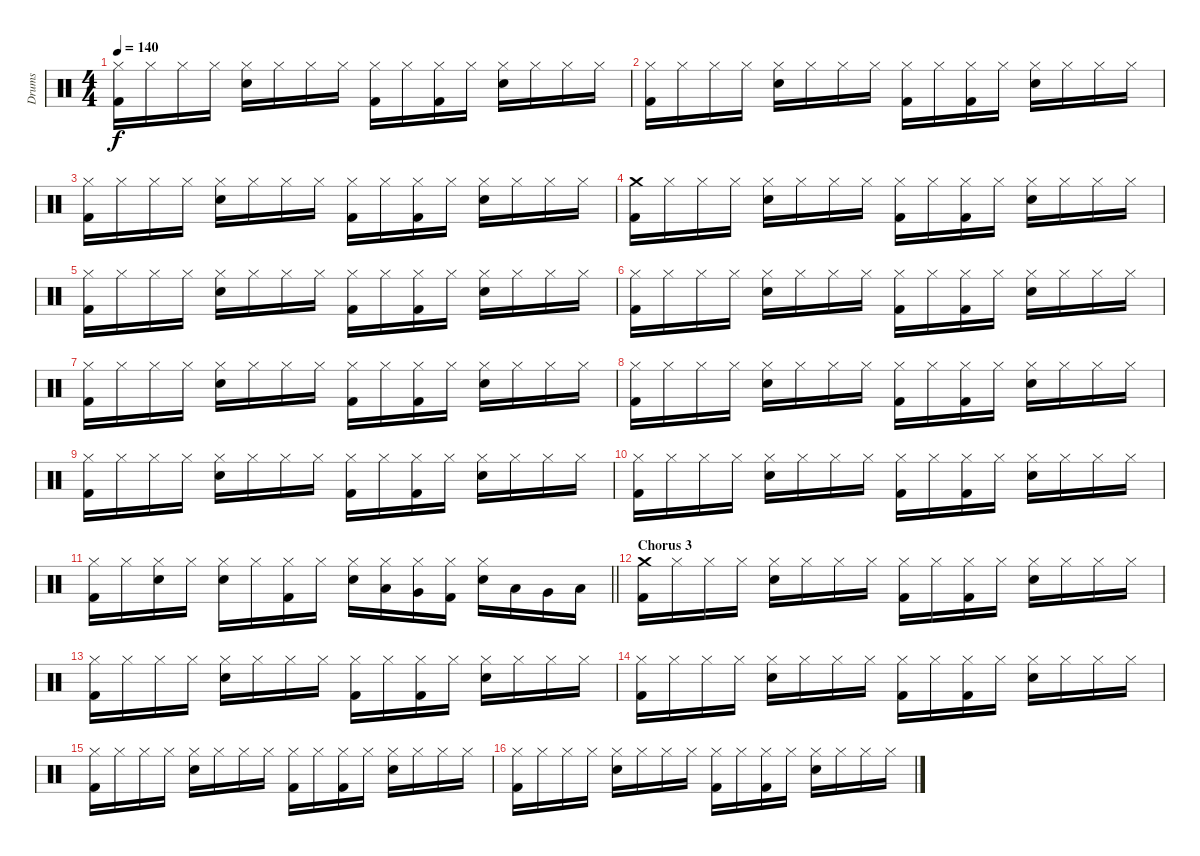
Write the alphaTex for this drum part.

\track ("Drums" "Drums") {instrument percussion}
\staff {score}
\articulation defaults
\ts (4 4)
\tempo 140
\clef neutral
\ks c
("Hi-Hat (closed)" "Kick (hit) 2").16{dy f} "Hi-Hat (closed)".16 "Hi-Hat (closed)".16 "Hi-Hat (closed)".16 ("Hi-Hat (closed)" "Snare (hit) 2").16 "Hi-Hat (closed)".16 "Hi-Hat (closed)".16 "Hi-Hat (closed)".16 ("Hi-Hat (closed)" "Kick (hit) 2").16 "Hi-Hat (closed)".16 ("Hi-Hat (closed)" "Kick (hit) 2").16 "Hi-Hat (closed)".16 ("Hi-Hat (closed)" "Snare (hit) 2").16 "Hi-Hat (closed)".16 "Hi-Hat (closed)".16 "Hi-Hat (closed)".16 |
("Hi-Hat (closed)" "Kick (hit) 2").16 "Hi-Hat (closed)".16 "Hi-Hat (closed)".16 "Hi-Hat (closed)".16 ("Hi-Hat (closed)" "Snare (hit) 2").16 "Hi-Hat (closed)".16 "Hi-Hat (closed)".16 "Hi-Hat (closed)".16 ("Hi-Hat (closed)" "Kick (hit) 2").16 "Hi-Hat (closed)".16 ("Hi-Hat (closed)" "Kick (hit) 2").16 "Hi-Hat (closed)".16 ("Hi-Hat (closed)" "Snare (hit) 2").16 "Hi-Hat (closed)".16 "Hi-Hat (closed)".16 "Hi-Hat (closed)".16 |
("Hi-Hat (closed)" "Kick (hit) 2").16 "Hi-Hat (closed)".16 "Hi-Hat (closed)".16 "Hi-Hat (closed)".16 ("Hi-Hat (closed)" "Snare (hit) 2").16 "Hi-Hat (closed)".16 "Hi-Hat (closed)".16 "Hi-Hat (closed)".16 ("Hi-Hat (closed)" "Kick (hit) 2").16 "Hi-Hat (closed)".16 ("Hi-Hat (closed)" "Kick (hit) 2").16 "Hi-Hat (closed)".16 ("Hi-Hat (closed)" "Snare (hit) 2").16 "Hi-Hat (closed)".16 "Hi-Hat (closed)".16 "Hi-Hat (closed)".16 |
("Crash medium (hit)" "Kick (hit) 2").16 "Hi-Hat (closed)".16 "Hi-Hat (closed)".16 "Hi-Hat (closed)".16 ("Hi-Hat (closed)" "Snare (hit) 2").16 "Hi-Hat (closed)".16 "Hi-Hat (closed)".16 "Hi-Hat (closed)".16 ("Hi-Hat (closed)" "Kick (hit) 2").16 "Hi-Hat (closed)".16 ("Hi-Hat (closed)" "Kick (hit) 2").16 "Hi-Hat (closed)".16 ("Hi-Hat (closed)" "Snare (hit) 2").16 "Hi-Hat (closed)".16 "Hi-Hat (closed)".16 "Hi-Hat (closed)".16 |
("Hi-Hat (closed)" "Kick (hit) 2").16 "Hi-Hat (closed)".16 "Hi-Hat (closed)".16 "Hi-Hat (closed)".16 ("Hi-Hat (closed)" "Snare (hit) 2").16 "Hi-Hat (closed)".16 "Hi-Hat (closed)".16 "Hi-Hat (closed)".16 ("Hi-Hat (closed)" "Kick (hit) 2").16 "Hi-Hat (closed)".16 ("Hi-Hat (closed)" "Kick (hit) 2").16 "Hi-Hat (closed)".16 ("Hi-Hat (closed)" "Snare (hit) 2").16 "Hi-Hat (closed)".16 "Hi-Hat (closed)".16 "Hi-Hat (closed)".16 |
("Hi-Hat (closed)" "Kick (hit) 2").16 "Hi-Hat (closed)".16 "Hi-Hat (closed)".16 "Hi-Hat (closed)".16 ("Hi-Hat (closed)" "Snare (hit) 2").16 "Hi-Hat (closed)".16 "Hi-Hat (closed)".16 "Hi-Hat (closed)".16 ("Hi-Hat (closed)" "Kick (hit) 2").16 "Hi-Hat (closed)".16 ("Hi-Hat (closed)" "Kick (hit) 2").16 "Hi-Hat (closed)".16 ("Hi-Hat (closed)" "Snare (hit) 2").16 "Hi-Hat (closed)".16 "Hi-Hat (closed)".16 "Hi-Hat (closed)".16 |
("Hi-Hat (closed)" "Kick (hit) 2").16 "Hi-Hat (closed)".16 "Hi-Hat (closed)".16 "Hi-Hat (closed)".16 ("Hi-Hat (closed)" "Snare (hit) 2").16 "Hi-Hat (closed)".16 "Hi-Hat (closed)".16 "Hi-Hat (closed)".16 ("Hi-Hat (closed)" "Kick (hit) 2").16 "Hi-Hat (closed)".16 ("Hi-Hat (closed)" "Kick (hit) 2").16 "Hi-Hat (closed)".16 ("Hi-Hat (closed)" "Snare (hit) 2").16 "Hi-Hat (closed)".16 "Hi-Hat (closed)".16 "Hi-Hat (closed)".16 |
("Hi-Hat (closed)" "Kick (hit) 2").16 "Hi-Hat (closed)".16 "Hi-Hat (closed)".16 "Hi-Hat (closed)".16 ("Hi-Hat (closed)" "Snare (hit) 2").16 "Hi-Hat (closed)".16 "Hi-Hat (closed)".16 "Hi-Hat (closed)".16 ("Hi-Hat (closed)" "Kick (hit) 2").16 "Hi-Hat (closed)".16 ("Hi-Hat (closed)" "Kick (hit) 2").16 "Hi-Hat (closed)".16 ("Hi-Hat (closed)" "Snare (hit) 2").16 "Hi-Hat (closed)".16 "Hi-Hat (closed)".16 "Hi-Hat (closed)".16 |
("Hi-Hat (closed)" "Kick (hit) 2").16 "Hi-Hat (closed)".16 "Hi-Hat (closed)".16 "Hi-Hat (closed)".16 ("Hi-Hat (closed)" "Snare (hit) 2").16 "Hi-Hat (closed)".16 "Hi-Hat (closed)".16 "Hi-Hat (closed)".16 ("Hi-Hat (closed)" "Kick (hit) 2").16 "Hi-Hat (closed)".16 ("Hi-Hat (closed)" "Kick (hit) 2").16 "Hi-Hat (closed)".16 ("Hi-Hat (closed)" "Snare (hit) 2").16 "Hi-Hat (closed)".16 "Hi-Hat (closed)".16 "Hi-Hat (closed)".16 |
("Hi-Hat (closed)" "Kick (hit) 2").16 "Hi-Hat (closed)".16 "Hi-Hat (closed)".16 "Hi-Hat (closed)".16 ("Hi-Hat (closed)" "Snare (hit) 2").16 "Hi-Hat (closed)".16 "Hi-Hat (closed)".16 "Hi-Hat (closed)".16 ("Hi-Hat (closed)" "Kick (hit) 2").16 "Hi-Hat (closed)".16 ("Hi-Hat (closed)" "Kick (hit) 2").16 "Hi-Hat (closed)".16 ("Hi-Hat (closed)" "Snare (hit) 2").16 "Hi-Hat (closed)".16 "Hi-Hat (closed)".16 "Hi-Hat (closed)".16 |
\barLineRight lightlight
("Hi-Hat (closed)" "Kick (hit) 2").16 "Hi-Hat (closed)".16 ("Hi-Hat (closed)" "Snare (hit) 2").16 "Hi-Hat (closed)".16 ("Hi-Hat (closed)" "Snare (hit) 2").16 "Hi-Hat (closed)".16 ("Hi-Hat (closed)" "Kick (hit) 2").16 "Hi-Hat (closed)".16 ("Hi-Hat (closed)" "Snare (hit) 2").16 ("Hi-Hat (closed)" "Low Tom (hit)").16 ("Hi-Hat (closed)" "Very Low Tom (hit)").16 ("Hi-Hat (closed)" "Kick (hit) 2").16 ("Hi-Hat (closed)" "Snare (hit) 2").16 "Low Tom (hit)".16 "Very Low Tom (hit)".16 "Low Floor Tom (hit)".16 |
\section ("" "Chorus 3")
("Crash medium (hit)" "Kick (hit) 2").16 "Hi-Hat (closed)".16 "Hi-Hat (closed)".16 "Hi-Hat (closed)".16 ("Hi-Hat (closed)" "Snare (hit) 2").16 "Hi-Hat (closed)".16 "Hi-Hat (closed)".16 "Hi-Hat (closed)".16 ("Hi-Hat (closed)" "Kick (hit) 2").16 "Hi-Hat (closed)".16 ("Hi-Hat (closed)" "Kick (hit) 2").16 "Hi-Hat (closed)".16 ("Hi-Hat (closed)" "Snare (hit) 2").16 "Hi-Hat (closed)".16 "Hi-Hat (closed)".16 "Hi-Hat (closed)".16 |
("Hi-Hat (closed)" "Kick (hit) 2").16 "Hi-Hat (closed)".16 "Hi-Hat (closed)".16 "Hi-Hat (closed)".16 ("Hi-Hat (closed)" "Snare (hit) 2").16 "Hi-Hat (closed)".16 "Hi-Hat (closed)".16 "Hi-Hat (closed)".16 ("Hi-Hat (closed)" "Kick (hit) 2").16 "Hi-Hat (closed)".16 ("Hi-Hat (closed)" "Kick (hit) 2").16 "Hi-Hat (closed)".16 ("Hi-Hat (closed)" "Snare (hit) 2").16 "Hi-Hat (closed)".16 "Hi-Hat (closed)".16 "Hi-Hat (closed)".16 |
("Hi-Hat (closed)" "Kick (hit) 2").16 "Hi-Hat (closed)".16 "Hi-Hat (closed)".16 "Hi-Hat (closed)".16 ("Hi-Hat (closed)" "Snare (hit) 2").16 "Hi-Hat (closed)".16 "Hi-Hat (closed)".16 "Hi-Hat (closed)".16 ("Hi-Hat (closed)" "Kick (hit) 2").16 "Hi-Hat (closed)".16 ("Hi-Hat (closed)" "Kick (hit) 2").16 "Hi-Hat (closed)".16 ("Hi-Hat (closed)" "Snare (hit) 2").16 "Hi-Hat (closed)".16 "Hi-Hat (closed)".16 "Hi-Hat (closed)".16 |
("Hi-Hat (closed)" "Kick (hit) 2").16 "Hi-Hat (closed)".16 "Hi-Hat (closed)".16 "Hi-Hat (closed)".16 ("Hi-Hat (closed)" "Snare (hit) 2").16 "Hi-Hat (closed)".16 "Hi-Hat (closed)".16 "Hi-Hat (closed)".16 ("Hi-Hat (closed)" "Kick (hit) 2").16 "Hi-Hat (closed)".16 ("Hi-Hat (closed)" "Kick (hit) 2").16 "Hi-Hat (closed)".16 ("Hi-Hat (closed)" "Snare (hit) 2").16 "Hi-Hat (closed)".16 "Hi-Hat (closed)".16 "Hi-Hat (closed)".16 |
("Hi-Hat (closed)" "Kick (hit) 2").16 "Hi-Hat (closed)".16 "Hi-Hat (closed)".16 "Hi-Hat (closed)".16 ("Hi-Hat (closed)" "Snare (hit) 2").16 "Hi-Hat (closed)".16 "Hi-Hat (closed)".16 "Hi-Hat (closed)".16 ("Hi-Hat (closed)" "Kick (hit) 2").16 "Hi-Hat (closed)".16 ("Hi-Hat (closed)" "Kick (hit) 2").16 "Hi-Hat (closed)".16 ("Hi-Hat (closed)" "Snare (hit) 2").16 "Hi-Hat (closed)".16 "Hi-Hat (closed)".16 "Hi-Hat (closed)".16
